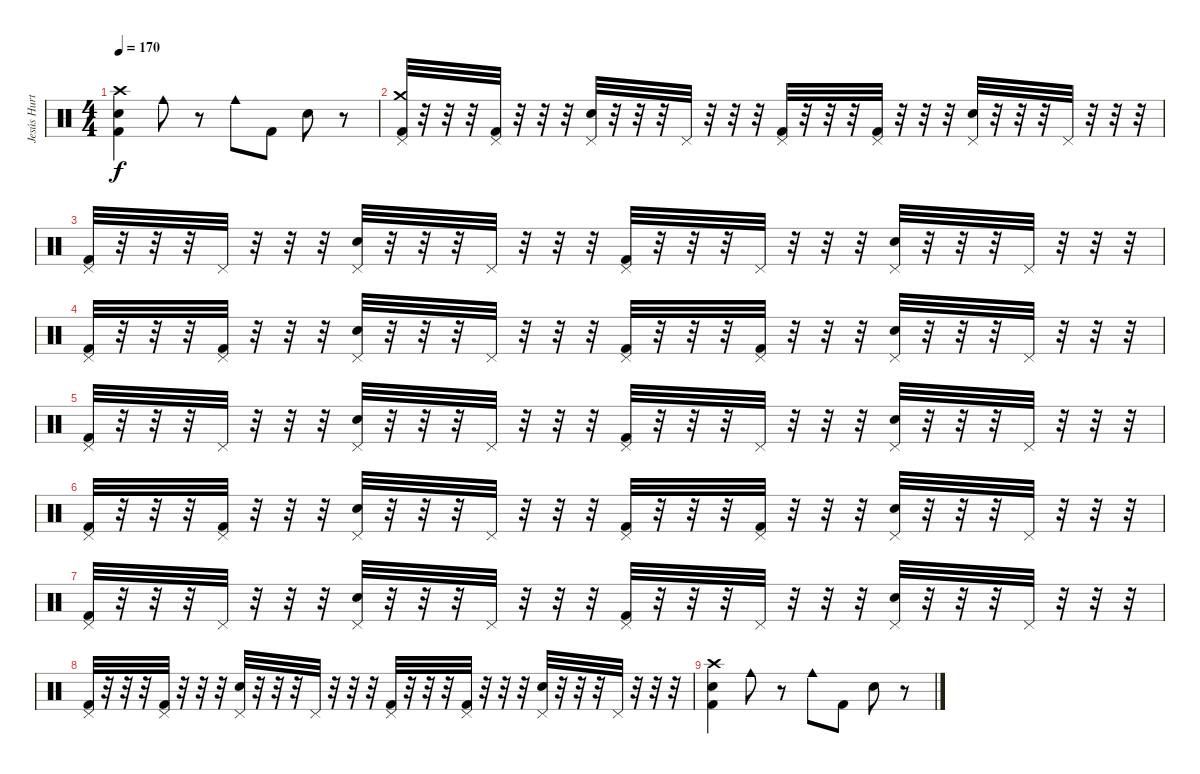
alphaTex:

\track ("Jesús Hurtado \"Jotache\"" "Jesús Hurt") {instrument percussion}
\staff {score}
\articulation defaults
\ts (4 4)
\tempo 170
\clef neutral
\ks c
("Electric Snare (hit)" "Kick (hit) 2" "Crash high (hit)").4{dy f} "Cowbell medium (hit)".8 r.8 "Cowbell medium (hit)".8 "Kick (hit) 2".8 "Electric Snare (hit)".8 r.8 |
("Kick (hit) 2" "Crash medium (hit)" "Pedal Hi-Hat (hit)").32 r.32 r.32 r.32 ("Kick (hit) 2" "Pedal Hi-Hat (hit)").32 r.32 r.32 r.32 ("Electric Snare (hit)" "Pedal Hi-Hat (hit)").32 r.32 r.32 r.32 "Pedal Hi-Hat (hit)".32 r.32 r.32 r.32 ("Kick (hit) 2" "Pedal Hi-Hat (hit)").32 r.32 r.32 r.32 ("Kick (hit) 2" "Pedal Hi-Hat (hit)").32 r.32 r.32 r.32 ("Electric Snare (hit)" "Pedal Hi-Hat (hit)").32 r.32 r.32 r.32 "Pedal Hi-Hat (hit)".32 r.32 r.32 r.32 |
("Kick (hit) 2" "Pedal Hi-Hat (hit)").32 r.32 r.32 r.32 "Pedal Hi-Hat (hit)".32 r.32 r.32 r.32 ("Electric Snare (hit)" "Pedal Hi-Hat (hit)").32 r.32 r.32 r.32 "Pedal Hi-Hat (hit)".32 r.32 r.32 r.32 ("Kick (hit) 2" "Pedal Hi-Hat (hit)").32 r.32 r.32 r.32 "Pedal Hi-Hat (hit)".32 r.32 r.32 r.32 ("Electric Snare (hit)" "Pedal Hi-Hat (hit)").32 r.32 r.32 r.32 "Pedal Hi-Hat (hit)".32 r.32 r.32 r.32 |
("Kick (hit) 2" "Pedal Hi-Hat (hit)").32 r.32 r.32 r.32 ("Kick (hit) 2" "Pedal Hi-Hat (hit)").32 r.32 r.32 r.32 ("Electric Snare (hit)" "Pedal Hi-Hat (hit)").32 r.32 r.32 r.32 "Pedal Hi-Hat (hit)".32 r.32 r.32 r.32 ("Kick (hit) 2" "Pedal Hi-Hat (hit)").32 r.32 r.32 r.32 ("Kick (hit) 2" "Pedal Hi-Hat (hit)").32 r.32 r.32 r.32 ("Electric Snare (hit)" "Pedal Hi-Hat (hit)").32 r.32 r.32 r.32 "Pedal Hi-Hat (hit)".32 r.32 r.32 r.32 |
("Kick (hit) 2" "Pedal Hi-Hat (hit)").32 r.32 r.32 r.32 "Pedal Hi-Hat (hit)".32 r.32 r.32 r.32 ("Electric Snare (hit)" "Pedal Hi-Hat (hit)").32 r.32 r.32 r.32 "Pedal Hi-Hat (hit)".32 r.32 r.32 r.32 ("Kick (hit) 2" "Pedal Hi-Hat (hit)").32 r.32 r.32 r.32 "Pedal Hi-Hat (hit)".32 r.32 r.32 r.32 ("Electric Snare (hit)" "Pedal Hi-Hat (hit)").32 r.32 r.32 r.32 "Pedal Hi-Hat (hit)".32 r.32 r.32 r.32 |
("Kick (hit) 2" "Pedal Hi-Hat (hit)").32 r.32 r.32 r.32 ("Kick (hit) 2" "Pedal Hi-Hat (hit)").32 r.32 r.32 r.32 ("Electric Snare (hit)" "Pedal Hi-Hat (hit)").32 r.32 r.32 r.32 "Pedal Hi-Hat (hit)".32 r.32 r.32 r.32 ("Kick (hit) 2" "Pedal Hi-Hat (hit)").32 r.32 r.32 r.32 ("Kick (hit) 2" "Pedal Hi-Hat (hit)").32 r.32 r.32 r.32 ("Electric Snare (hit)" "Pedal Hi-Hat (hit)").32 r.32 r.32 r.32 "Pedal Hi-Hat (hit)".32 r.32 r.32 r.32 |
("Kick (hit) 2" "Pedal Hi-Hat (hit)").32 r.32 r.32 r.32 "Pedal Hi-Hat (hit)".32 r.32 r.32 r.32 ("Electric Snare (hit)" "Pedal Hi-Hat (hit)").32 r.32 r.32 r.32 "Pedal Hi-Hat (hit)".32 r.32 r.32 r.32 ("Kick (hit) 2" "Pedal Hi-Hat (hit)").32 r.32 r.32 r.32 "Pedal Hi-Hat (hit)".32 r.32 r.32 r.32 ("Electric Snare (hit)" "Pedal Hi-Hat (hit)").32 r.32 r.32 r.32 "Pedal Hi-Hat (hit)".32 r.32 r.32 r.32 |
("Kick (hit) 2" "Pedal Hi-Hat (hit)").32 r.32 r.32 r.32 ("Kick (hit) 2" "Pedal Hi-Hat (hit)").32 r.32 r.32 r.32 ("Electric Snare (hit)" "Pedal Hi-Hat (hit)").32 r.32 r.32 r.32 "Pedal Hi-Hat (hit)".32 r.32 r.32 r.32 ("Kick (hit) 2" "Pedal Hi-Hat (hit)").32 r.32 r.32 r.32 ("Kick (hit) 2" "Pedal Hi-Hat (hit)").32 r.32 r.32 r.32 ("Electric Snare (hit)" "Pedal Hi-Hat (hit)").32 r.32 r.32 r.32 "Pedal Hi-Hat (hit)".32 r.32 r.32 r.32 |
("Electric Snare (hit)" "Kick (hit) 2" "Crash high (hit)").4 "Cowbell medium (hit)".8 r.8 "Cowbell medium (hit)".8 "Kick (hit) 2".8 "Electric Snare (hit)".8 r.8
